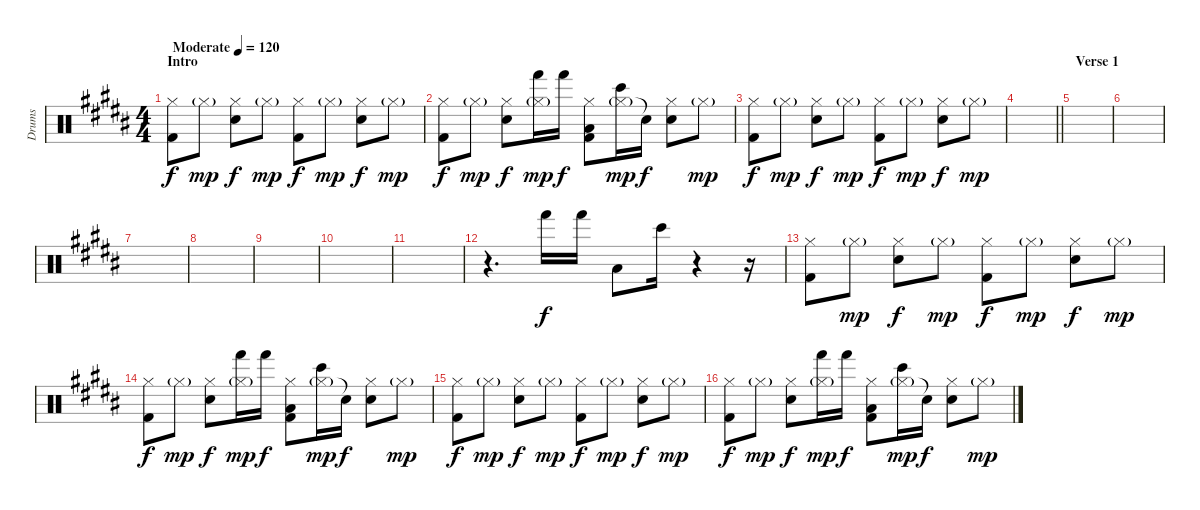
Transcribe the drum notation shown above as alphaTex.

\track ("Drums" "Drums") {instrument percussion}
\staff {score}
\articulation defaults
\ts (4 4)
\section ("" "Intro")
\tempo (120 "Moderate")
\clef neutral
\ks g#minor
("Hi-Hat (closed)" "Kick (hit) 2").8{dy f} "Hi-Hat (closed)"{g}.8{dy mp} ("Hi-Hat (closed)" "Electric Snare (hit)").8{dy f} "Hi-Hat (closed)"{g}.8{dy mp} ("Hi-Hat (closed)" "Kick (hit) 2").8{dy f} "Hi-Hat (closed)"{g}.8{dy mp} ("Hi-Hat (closed)" "Electric Snare (hit)").8{dy f} "Hi-Hat (closed)"{g}.8{dy mp} |
("Hi-Hat (closed)" "Kick (hit) 2").8{dy f} "Hi-Hat (closed)"{g}.8{dy mp} ("Hi-Hat (closed)" "Electric Snare (hit)").8{dy f} ("Hi-Hat (closed)"{g} "Hand (hit)").16{dy mp} "Hand (hit)".16{dy f} ("Hi-Hat (closed)" "Low Tom (hit)" "Kick (hit) 2").8 ("Hi-Hat (closed)"{g} "Bongo High (hit)").16{dy mp} "Snare (hit)"{t}.16{dy f} ("Hi-Hat (closed)" "Electric Snare (hit)").8 "Hi-Hat (closed)"{g}.8{dy mp} |
("Hi-Hat (closed)" "Kick (hit) 2").8{dy f} "Hi-Hat (closed)"{g}.8{dy mp} ("Hi-Hat (closed)" "Electric Snare (hit)").8{dy f} "Hi-Hat (closed)"{g}.8{dy mp} ("Hi-Hat (closed)" "Kick (hit) 2").8{dy f} "Hi-Hat (closed)"{g}.8{dy mp} ("Hi-Hat (closed)" "Electric Snare (hit)").8{dy f} "Hi-Hat (closed)"{g}.8{dy mp} |
\barLineRight lightlight
|
\section ("" "Verse 1")
|
|
|
|
|
|
|
r.4{d} "Hand (hit)".16{dy f} "Hand (hit)".16 "Low Tom (hit)".8 "Bongo High (hit)".16 r.4 r.16 |
("Hi-Hat (closed)" "Kick (hit) 2").8 "Hi-Hat (closed)"{g}.8{dy mp} ("Hi-Hat (closed)" "Electric Snare (hit)").8{dy f} "Hi-Hat (closed)"{g}.8{dy mp} ("Hi-Hat (closed)" "Kick (hit) 2").8{dy f} "Hi-Hat (closed)"{g}.8{dy mp} ("Hi-Hat (closed)" "Electric Snare (hit)").8{dy f} "Hi-Hat (closed)"{g}.8{dy mp} |
("Hi-Hat (closed)" "Kick (hit) 2").8{dy f} "Hi-Hat (closed)"{g}.8{dy mp} ("Hi-Hat (closed)" "Electric Snare (hit)").8{dy f} ("Hi-Hat (closed)"{g} "Hand (hit)").16{dy mp} "Hand (hit)".16{dy f} ("Hi-Hat (closed)" "Low Tom (hit)" "Kick (hit) 2").8 ("Hi-Hat (closed)"{g} "Bongo High (hit)").16{dy mp} "Snare (hit)"{t}.16{dy f} ("Hi-Hat (closed)" "Electric Snare (hit)").8 "Hi-Hat (closed)"{g}.8{dy mp} |
("Hi-Hat (closed)" "Kick (hit) 2").8{dy f} "Hi-Hat (closed)"{g}.8{dy mp} ("Hi-Hat (closed)" "Electric Snare (hit)").8{dy f} "Hi-Hat (closed)"{g}.8{dy mp} ("Hi-Hat (closed)" "Kick (hit) 2").8{dy f} "Hi-Hat (closed)"{g}.8{dy mp} ("Hi-Hat (closed)" "Electric Snare (hit)").8{dy f} "Hi-Hat (closed)"{g}.8{dy mp} |
("Hi-Hat (closed)" "Kick (hit) 2").8{dy f} "Hi-Hat (closed)"{g}.8{dy mp} ("Hi-Hat (closed)" "Electric Snare (hit)").8{dy f} ("Hi-Hat (closed)"{g} "Hand (hit)").16{dy mp} "Hand (hit)".16{dy f} ("Hi-Hat (closed)" "Low Tom (hit)" "Kick (hit) 2").8 ("Hi-Hat (closed)"{g} "Bongo High (hit)").16{dy mp} "Snare (hit)"{t}.16{dy f} ("Hi-Hat (closed)" "Electric Snare (hit)").8 "Hi-Hat (closed)"{g}.8{dy mp}
